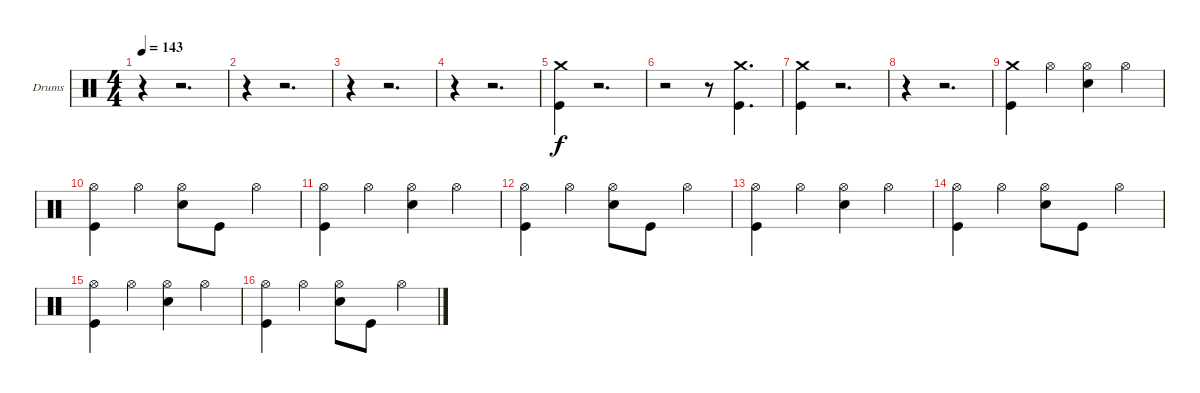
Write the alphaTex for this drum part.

\bracketExtendMode groupsimilarinstruments
\firstSystemTrackNameOrientation horizontal
\otherSystemsTrackNameOrientation horizontal
\track ("Drumkit" "Drums") {instrument percussion}
\staff {score}
\articulation defaults
\ts (4 4)
\beaming (8 2 2 2 2)
\tempo 143
\clef neutral
\ks c
r.4{dy f} r.2{d} |
r.4 r.2{d} |
r.4 r.2{d} |
r.4 r.2{d} |
("Crash medium (hit)" "Kick (hit)").4 r.2{d} |
r.2 r.8 ("Crash medium (hit)" "Kick (hit)").4{d} |
("Crash medium (hit)" "Kick (hit)").4 r.2{d} |
r.4 r.2{d} |
("Crash medium (hit)" "Kick (hit)").4 "Hi-Hat (open)".4 ("Hi-Hat (open)" "Snare (hit) 2").4 "Hi-Hat (open)".4 |
("Hi-Hat (open)" "Kick (hit)").4 "Hi-Hat (open)".4 ("Hi-Hat (open)" "Snare (hit) 2").8 "Kick (hit)".8 "Hi-Hat (open)".4 |
("Hi-Hat (open)" "Kick (hit)").4 "Hi-Hat (open)".4 ("Hi-Hat (open)" "Snare (hit) 2").4 "Hi-Hat (open)".4 |
("Hi-Hat (open)" "Kick (hit)").4 "Hi-Hat (open)".4 ("Hi-Hat (open)" "Snare (hit) 2").8 "Kick (hit)".8 "Hi-Hat (open)".4 |
("Hi-Hat (open)" "Kick (hit)").4 "Hi-Hat (open)".4 ("Hi-Hat (open)" "Snare (hit) 2").4 "Hi-Hat (open)".4 |
("Hi-Hat (open)" "Kick (hit)").4 "Hi-Hat (open)".4 ("Hi-Hat (open)" "Snare (hit) 2").8 "Kick (hit)".8 "Hi-Hat (open)".4 |
("Hi-Hat (open)" "Kick (hit)").4 "Hi-Hat (open)".4 ("Hi-Hat (open)" "Snare (hit) 2").4 "Hi-Hat (open)".4 |
("Hi-Hat (open)" "Kick (hit)").4 "Hi-Hat (open)".4 ("Hi-Hat (open)" "Snare (hit) 2").8 "Kick (hit)".8 "Hi-Hat (open)".4
